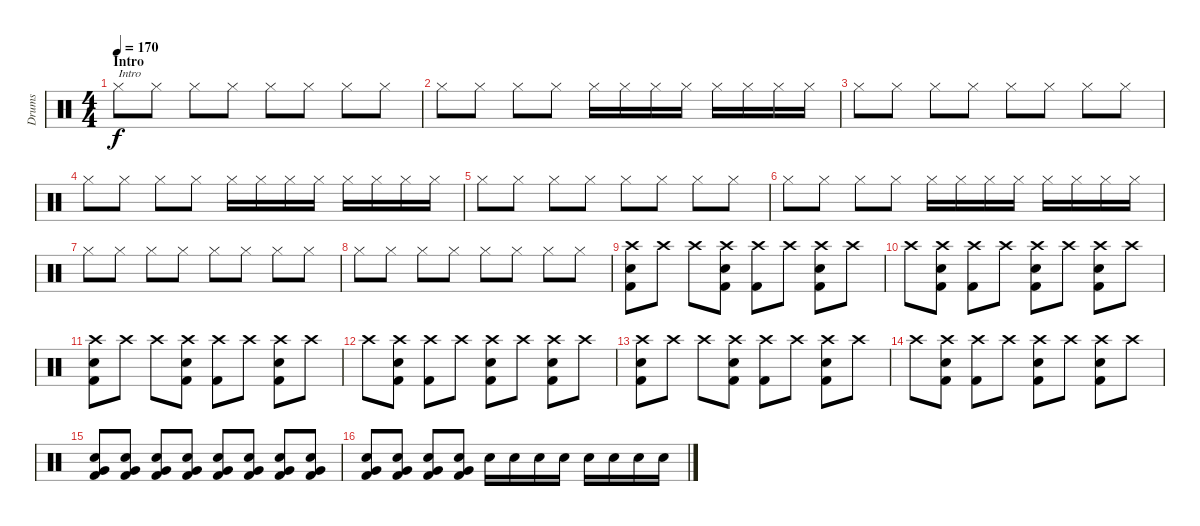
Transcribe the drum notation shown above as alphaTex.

\track ("Drums" "Drums") {instrument percussion}
\staff {score}
\articulation defaults
\ts (4 4)
\section ("" "Intro")
\tempo 170
\clef neutral
\ks c "Hi-Hat (closed)".8{txt "Intro" dy f} "Hi-Hat (closed)".8 "Hi-Hat (closed)".8 "Hi-Hat (closed)".8 "Hi-Hat (closed)".8 "Hi-Hat (closed)".8 "Hi-Hat (closed)".8 "Hi-Hat (closed)".8
|
"Hi-Hat (closed)".8 "Hi-Hat (closed)".8 "Hi-Hat (closed)".8 "Hi-Hat (closed)".8 "Hi-Hat (closed)".16 "Hi-Hat (closed)".16 "Hi-Hat (closed)".16 "Hi-Hat (closed)".16 "Hi-Hat (closed)".16 "Hi-Hat (closed)".16 "Hi-Hat (closed)".16 "Hi-Hat (closed)".16 |
"Hi-Hat (closed)".8 "Hi-Hat (closed)".8 "Hi-Hat (closed)".8 "Hi-Hat (closed)".8 "Hi-Hat (closed)".8 "Hi-Hat (closed)".8 "Hi-Hat (closed)".8 "Hi-Hat (closed)".8 |
"Hi-Hat (closed)".8 "Hi-Hat (closed)".8 "Hi-Hat (closed)".8 "Hi-Hat (closed)".8 "Hi-Hat (closed)".16 "Hi-Hat (closed)".16 "Hi-Hat (closed)".16 "Hi-Hat (closed)".16 "Hi-Hat (closed)".16 "Hi-Hat (closed)".16 "Hi-Hat (closed)".16 "Hi-Hat (closed)".16 |
"Hi-Hat (closed)".8 "Hi-Hat (closed)".8 "Hi-Hat (closed)".8 "Hi-Hat (closed)".8 "Hi-Hat (closed)".8 "Hi-Hat (closed)".8 "Hi-Hat (closed)".8 "Hi-Hat (closed)".8 |
"Hi-Hat (closed)".8 "Hi-Hat (closed)".8 "Hi-Hat (closed)".8 "Hi-Hat (closed)".8 "Hi-Hat (closed)".16 "Hi-Hat (closed)".16 "Hi-Hat (closed)".16 "Hi-Hat (closed)".16 "Hi-Hat (closed)".16 "Hi-Hat (closed)".16 "Hi-Hat (closed)".16 "Hi-Hat (closed)".16 |
"Hi-Hat (closed)".8 "Hi-Hat (closed)".8 "Hi-Hat (closed)".8 "Hi-Hat (closed)".8 "Hi-Hat (closed)".8 "Hi-Hat (closed)".8 "Hi-Hat (closed)".8 "Hi-Hat (closed)".8 |
"Hi-Hat (closed)".8 "Hi-Hat (closed)".8 "Hi-Hat (closed)".8 "Hi-Hat (closed)".8 "Hi-Hat (closed)".8 "Hi-Hat (closed)".8 "Hi-Hat (closed)".8 "Hi-Hat (closed)".8 |
("Crash high (hit)" "Electric Snare (hit)" "Kick (hit) 2").8 "Crash high (hit)".8 "Crash high (hit)".8 ("Crash high (hit)" "Electric Snare (hit)" "Kick (hit) 2").8 ("Crash high (hit)" "Kick (hit) 2").8 "Crash high (hit)".8 ("Crash high (hit)" "Electric Snare (hit)" "Kick (hit) 2").8 "Crash high (hit)".8 |
"Crash high (hit)".8 ("Crash high (hit)" "Electric Snare (hit)" "Kick (hit) 2").8 ("Crash high (hit)" "Kick (hit) 2").8 "Crash high (hit)".8 ("Crash high (hit)" "Electric Snare (hit)" "Kick (hit) 2").8 "Crash high (hit)".8 ("Crash high (hit)" "Electric Snare (hit)" "Kick (hit) 2").8 "Crash high (hit)".8 |
("Crash high (hit)" "Electric Snare (hit)" "Kick (hit) 2").8 "Crash high (hit)".8 "Crash high (hit)".8 ("Crash high (hit)" "Electric Snare (hit)" "Kick (hit) 2").8 ("Crash high (hit)" "Kick (hit) 2").8 "Crash high (hit)".8 ("Crash high (hit)" "Electric Snare (hit)" "Kick (hit) 2").8 "Crash high (hit)".8 |
"Crash high (hit)".8 ("Crash high (hit)" "Electric Snare (hit)" "Kick (hit) 2").8 ("Crash high (hit)" "Kick (hit) 2").8 "Crash high (hit)".8 ("Crash high (hit)" "Electric Snare (hit)" "Kick (hit) 2").8 "Crash high (hit)".8 ("Crash high (hit)" "Electric Snare (hit)" "Kick (hit) 2").8 "Crash high (hit)".8 |
("Crash high (hit)" "Electric Snare (hit)" "Kick (hit) 2").8 "Crash high (hit)".8 "Crash high (hit)".8 ("Crash high (hit)" "Electric Snare (hit)" "Kick (hit) 2").8 ("Crash high (hit)" "Kick (hit) 2").8 "Crash high (hit)".8 ("Crash high (hit)" "Electric Snare (hit)" "Kick (hit) 2").8 "Crash high (hit)".8 |
"Crash high (hit)".8 ("Crash high (hit)" "Electric Snare (hit)" "Kick (hit) 2").8 ("Crash high (hit)" "Kick (hit) 2").8 "Crash high (hit)".8 ("Crash high (hit)" "Electric Snare (hit)" "Kick (hit) 2").8 "Crash high (hit)".8 ("Crash high (hit)" "Electric Snare (hit)" "Kick (hit) 2").8 "Crash high (hit)".8 |
("Electric Snare (hit)" "Very Low Tom (hit)" "Kick (hit) 2").8 ("Electric Snare (hit)" "Very Low Tom (hit)" "Kick (hit) 2").8 ("Electric Snare (hit)" "Very Low Tom (hit)" "Kick (hit) 2").8 ("Electric Snare (hit)" "Very Low Tom (hit)" "Kick (hit) 2").8 ("Electric Snare (hit)" "Very Low Tom (hit)" "Kick (hit) 2").8 ("Electric Snare (hit)" "Very Low Tom (hit)" "Kick (hit) 2").8 ("Electric Snare (hit)" "Very Low Tom (hit)" "Kick (hit) 2").8 ("Electric Snare (hit)" "Very Low Tom (hit)" "Kick (hit) 2").8 |
("Electric Snare (hit)" "Very Low Tom (hit)" "Kick (hit) 2").8 ("Electric Snare (hit)" "Very Low Tom (hit)" "Kick (hit) 2").8 ("Electric Snare (hit)" "Very Low Tom (hit)" "Kick (hit) 2").8 ("Electric Snare (hit)" "Very Low Tom (hit)" "Kick (hit) 2").8 "Electric Snare (hit)".16 "Electric Snare (hit)".16 "Electric Snare (hit)".16 "Electric Snare (hit)".16 "Electric Snare (hit)".16 "Electric Snare (hit)".16 "Electric Snare (hit)".16 "Electric Snare (hit)".16
